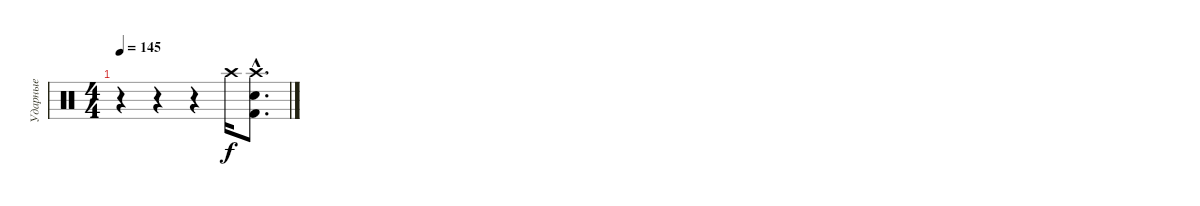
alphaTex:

\track ("Ударные" "Ударные") {instrument percussion}
\staff {score}
\articulation defaults
\ts (4 4)
\tempo 145
\clef neutral
\ks c
r.4{dy f} r.4 r.4 "Crash high (hit)".16 ("Kick (hit) 2"{hac} "Crash high (hit)"{hac} "Electric Snare (hit)"{hac}).8{d}
